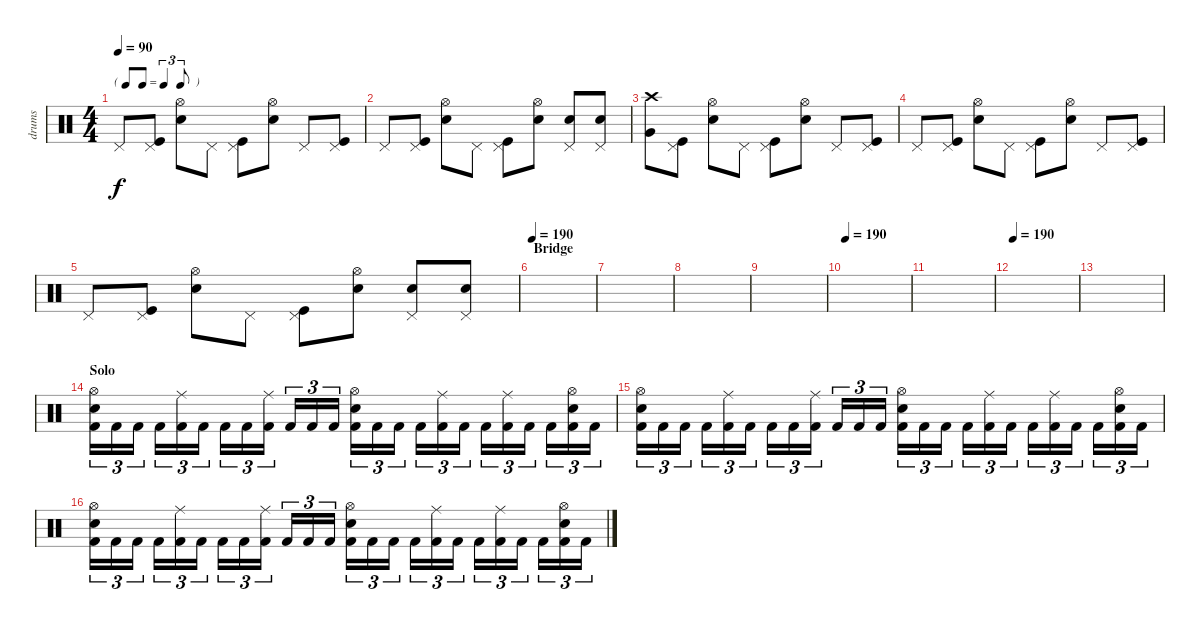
\track ("drums" "drums") {instrument percussion}
\staff {score}
\articulation defaults
\ts (4 4)
\tf triplet8th
\tempo 90
\clef neutral
\ks c "Pedal Hi-Hat (hit)".8{dy f}
("Pedal Hi-Hat (hit)" "Kick (hit)").8 ("Hi-Hat (open)" "Snare (hit) 2").8 "Pedal Hi-Hat (hit)".8 ("Pedal Hi-Hat (hit)" "Kick (hit)").8 ("Hi-Hat (open)" "Snare (hit) 2").8 "Pedal Hi-Hat (hit)".8 ("Pedal Hi-Hat (hit)" "Kick (hit)").8 |
"Pedal Hi-Hat (hit)".8 ("Pedal Hi-Hat (hit)" "Kick (hit)").8 ("Hi-Hat (open)" "Snare (hit) 2").8 "Pedal Hi-Hat (hit)".8 ("Pedal Hi-Hat (hit)" "Kick (hit)").8 ("Hi-Hat (open)" "Snare (hit) 2").8 ("Pedal Hi-Hat (hit)" "Snare (hit) 2").8 ("Pedal Hi-Hat (hit)" "Snare (hit) 2").8 |
("Crash high (hit)" "Very Low Tom (hit)").8 ("Pedal Hi-Hat (hit)" "Kick (hit)").8 ("Hi-Hat (open)" "Snare (hit) 2").8 "Pedal Hi-Hat (hit)".8 ("Pedal Hi-Hat (hit)" "Kick (hit)").8 ("Hi-Hat (open)" "Snare (hit) 2").8 "Pedal Hi-Hat (hit)".8 ("Pedal Hi-Hat (hit)" "Kick (hit)").8 |
"Pedal Hi-Hat (hit)".8 ("Pedal Hi-Hat (hit)" "Kick (hit)").8 ("Hi-Hat (open)" "Snare (hit) 2").8 "Pedal Hi-Hat (hit)".8 ("Pedal Hi-Hat (hit)" "Kick (hit)").8 ("Hi-Hat (open)" "Snare (hit) 2").8 "Pedal Hi-Hat (hit)".8 ("Pedal Hi-Hat (hit)" "Kick (hit)").8 |
"Pedal Hi-Hat (hit)".8 ("Pedal Hi-Hat (hit)" "Kick (hit)").8 ("Hi-Hat (open)" "Snare (hit) 2").8 "Pedal Hi-Hat (hit)".8 ("Pedal Hi-Hat (hit)" "Kick (hit)").8 ("Hi-Hat (open)" "Snare (hit) 2").8 ("Pedal Hi-Hat (hit)" "Snare (hit) 2").8 ("Pedal Hi-Hat (hit)" "Snare (hit) 2").8 |
\section ("" "Bridge")
\tempo 190
|
|
|
|
\tempo 190
|
|
\tempo 190
|
|
\section ("" "Solo")
("Kick (hit) 2" "Electric Snare (hit)" "Hi-Hat (open)").16{tu (3 2)} "Kick (hit) 2".16{tu (3 2)} "Kick (hit) 2".16{tu (3 2)} "Kick (hit) 2".16{tu (3 2)} ("Kick (hit) 2" "Ride (middle)").16{tu (3 2)} "Kick (hit) 2".16{tu (3 2)} "Kick (hit) 2".16{tu (3 2)} "Kick (hit) 2".16{tu (3 2)} ("Kick (hit) 2" "Ride (middle)").16{tu (3 2)} "Kick (hit) 2".16{tu (3 2)} "Kick (hit) 2".16{tu (3 2)} "Kick (hit) 2".16{tu (3 2)} ("Kick (hit) 2" "Electric Snare (hit)" "Hi-Hat (open)").16{tu (3 2)} "Kick (hit) 2".16{tu (3 2)} "Kick (hit) 2".16{tu (3 2)} "Kick (hit) 2".16{tu (3 2)} ("Kick (hit) 2" "Ride (middle)").16{tu (3 2)} "Kick (hit) 2".16{tu (3 2)} "Kick (hit) 2".16{tu (3 2)} ("Kick (hit) 2" "Ride (middle)").16{tu (3 2)} "Kick (hit) 2".16{tu (3 2)} "Kick (hit) 2".16{tu (3 2)} ("Kick (hit) 2" "Electric Snare (hit)" "Hi-Hat (open)").16{tu (3 2)} "Kick (hit) 2".16{tu (3 2)} |
("Kick (hit) 2" "Electric Snare (hit)" "Hi-Hat (open)").16{tu (3 2)} "Kick (hit) 2".16{tu (3 2)} "Kick (hit) 2".16{tu (3 2)} "Kick (hit) 2".16{tu (3 2)} ("Kick (hit) 2" "Ride (middle)").16{tu (3 2)} "Kick (hit) 2".16{tu (3 2)} "Kick (hit) 2".16{tu (3 2)} "Kick (hit) 2".16{tu (3 2)} ("Kick (hit) 2" "Ride (middle)").16{tu (3 2)} "Kick (hit) 2".16{tu (3 2)} "Kick (hit) 2".16{tu (3 2)} "Kick (hit) 2".16{tu (3 2)} ("Kick (hit) 2" "Electric Snare (hit)" "Hi-Hat (open)").16{tu (3 2)} "Kick (hit) 2".16{tu (3 2)} "Kick (hit) 2".16{tu (3 2)} "Kick (hit) 2".16{tu (3 2)} ("Kick (hit) 2" "Ride (middle)").16{tu (3 2)} "Kick (hit) 2".16{tu (3 2)} "Kick (hit) 2".16{tu (3 2)} ("Kick (hit) 2" "Ride (middle)").16{tu (3 2)} "Kick (hit) 2".16{tu (3 2)} "Kick (hit) 2".16{tu (3 2)} ("Kick (hit) 2" "Electric Snare (hit)" "Hi-Hat (open)").16{tu (3 2)} "Kick (hit) 2".16{tu (3 2)} |
("Kick (hit) 2" "Electric Snare (hit)" "Hi-Hat (open)").16{tu (3 2)} "Kick (hit) 2".16{tu (3 2)} "Kick (hit) 2".16{tu (3 2)} "Kick (hit) 2".16{tu (3 2)} ("Kick (hit) 2" "Ride (middle)").16{tu (3 2)} "Kick (hit) 2".16{tu (3 2)} "Kick (hit) 2".16{tu (3 2)} "Kick (hit) 2".16{tu (3 2)} ("Kick (hit) 2" "Ride (middle)").16{tu (3 2)} "Kick (hit) 2".16{tu (3 2)} "Kick (hit) 2".16{tu (3 2)} "Kick (hit) 2".16{tu (3 2)} ("Kick (hit) 2" "Electric Snare (hit)" "Hi-Hat (open)").16{tu (3 2)} "Kick (hit) 2".16{tu (3 2)} "Kick (hit) 2".16{tu (3 2)} "Kick (hit) 2".16{tu (3 2)} ("Kick (hit) 2" "Ride (middle)").16{tu (3 2)} "Kick (hit) 2".16{tu (3 2)} "Kick (hit) 2".16{tu (3 2)} ("Kick (hit) 2" "Ride (middle)").16{tu (3 2)} "Kick (hit) 2".16{tu (3 2)} "Kick (hit) 2".16{tu (3 2)} ("Kick (hit) 2" "Electric Snare (hit)" "Hi-Hat (open)").16{tu (3 2)} "Kick (hit) 2".16{tu (3 2)}
